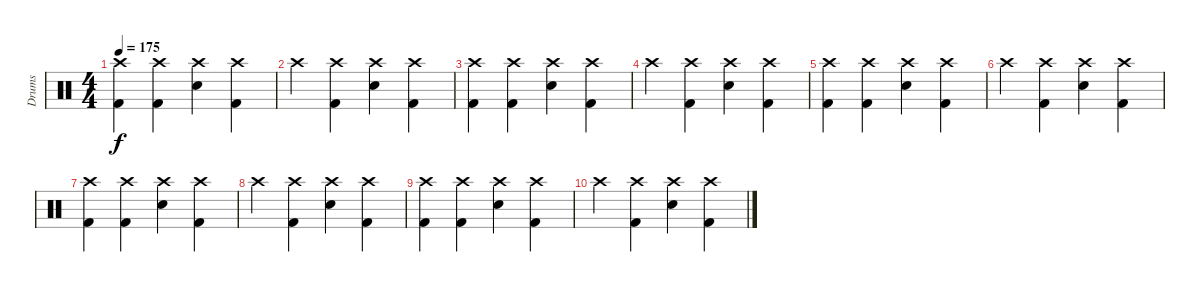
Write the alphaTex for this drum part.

\track ("Drums" "Drums") {instrument percussion}
\staff {score}
\articulation defaults
\ts (4 4)
\tempo 175
\clef neutral
\ks c
("Crash high (hit)" "Kick (hit) 2").4{dy f} ("Crash high (hit)" "Kick (hit) 2").4 ("Crash high (hit)" "Snare (hit) 2").4 ("Crash high (hit)" "Kick (hit) 2").4 |
"Crash high (hit)".4 ("Crash high (hit)" "Kick (hit) 2").4 ("Crash high (hit)" "Snare (hit) 2").4 ("Crash high (hit)" "Kick (hit) 2").4 |
("Crash high (hit)" "Kick (hit) 2").4 ("Crash high (hit)" "Kick (hit) 2").4 ("Crash high (hit)" "Snare (hit) 2").4 ("Crash high (hit)" "Kick (hit) 2").4 |
"Crash high (hit)".4 ("Crash high (hit)" "Kick (hit) 2").4 ("Crash high (hit)" "Snare (hit) 2").4 ("Crash high (hit)" "Kick (hit) 2").4 |
("Crash high (hit)" "Kick (hit) 2").4 ("Crash high (hit)" "Kick (hit) 2").4 ("Crash high (hit)" "Snare (hit) 2").4 ("Crash high (hit)" "Kick (hit) 2").4 |
"Crash high (hit)".4 ("Crash high (hit)" "Kick (hit) 2").4 ("Crash high (hit)" "Snare (hit) 2").4 ("Crash high (hit)" "Kick (hit) 2").4 |
("Crash high (hit)" "Kick (hit) 2").4 ("Crash high (hit)" "Kick (hit) 2").4 ("Crash high (hit)" "Snare (hit) 2").4 ("Crash high (hit)" "Kick (hit) 2").4 |
"Crash high (hit)".4 ("Crash high (hit)" "Kick (hit) 2").4 ("Crash high (hit)" "Snare (hit) 2").4 ("Crash high (hit)" "Kick (hit) 2").4 |
("Crash high (hit)" "Kick (hit) 2").4 ("Crash high (hit)" "Kick (hit) 2").4 ("Crash high (hit)" "Snare (hit) 2").4 ("Crash high (hit)" "Kick (hit) 2").4 |
"Crash high (hit)".4 ("Crash high (hit)" "Kick (hit) 2").4 ("Crash high (hit)" "Snare (hit) 2").4 ("Crash high (hit)" "Kick (hit) 2").4
